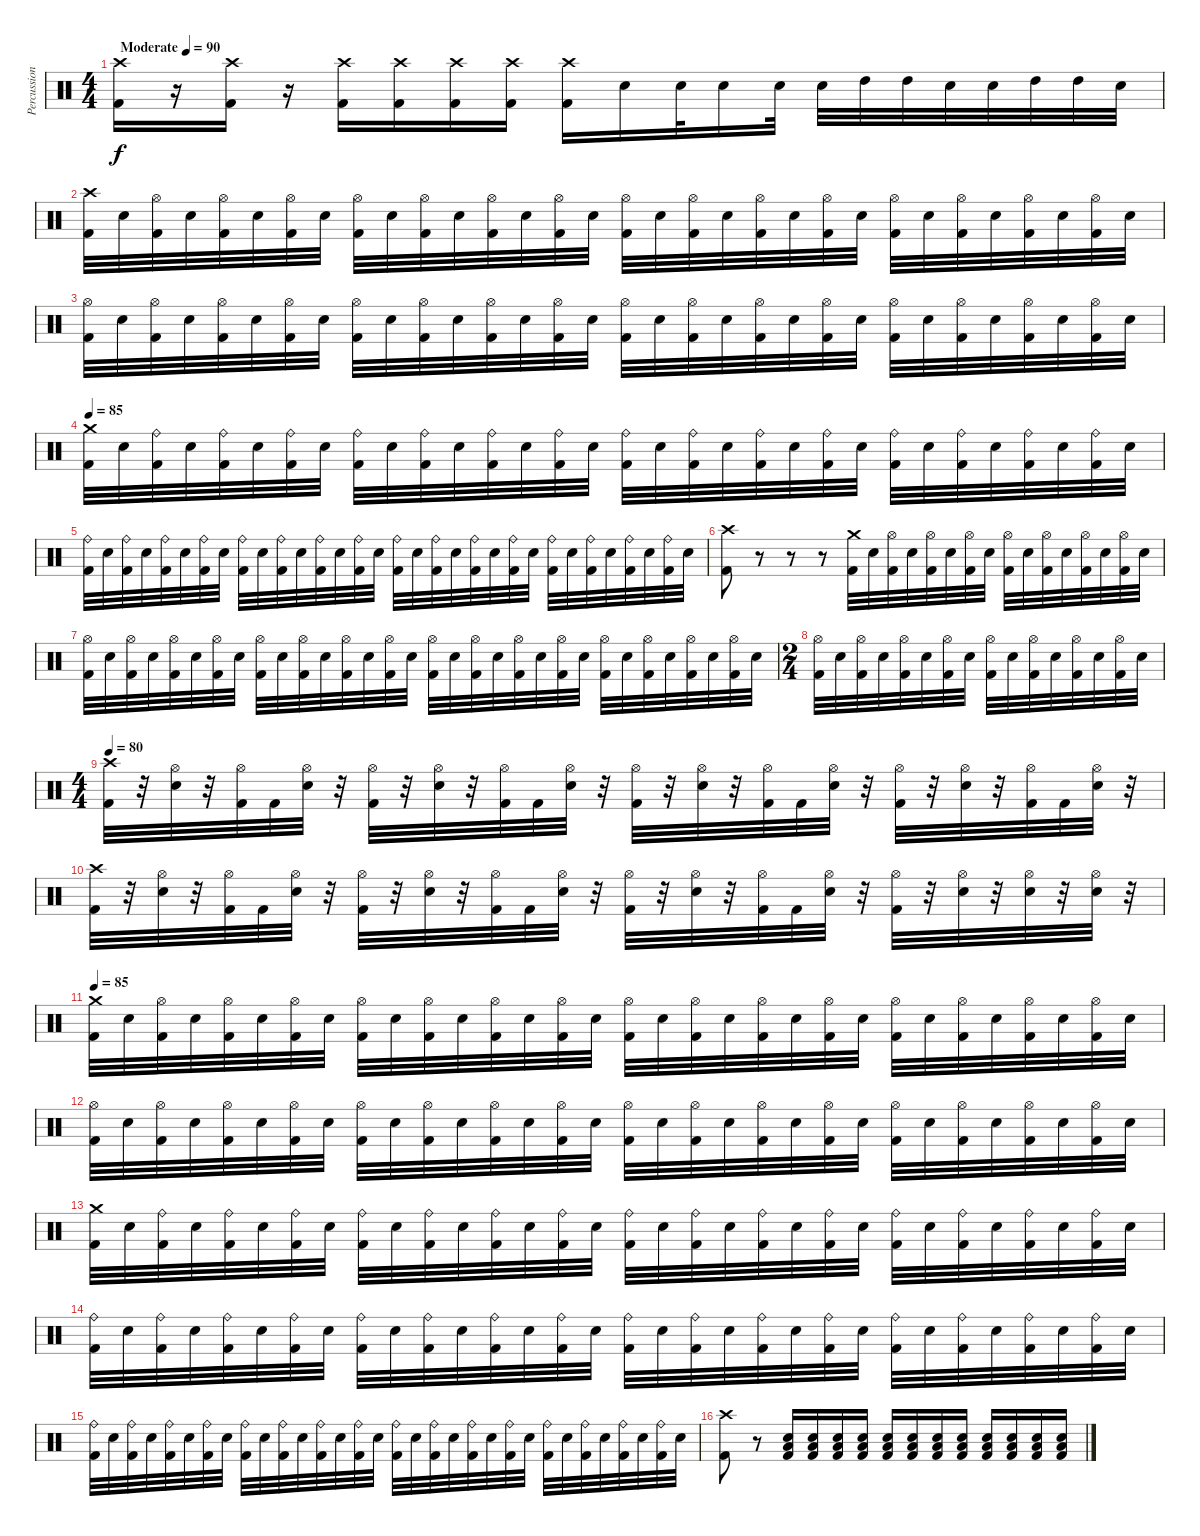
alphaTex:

\track ("Percussion" "Percussion") {instrument percussion}
\staff {score}
\articulation defaults
\ts (4 4)
\tempo (90 "Moderate")
\clef neutral
\ks c
("Crash high (hit)" "Kick (hit) 2").16{dy f} r.16 ("Crash high (hit)" "Kick (hit) 2").16 r.16 ("Crash high (hit)" "Kick (hit) 2").16 ("Crash high (hit)" "Kick (hit) 2").16 ("Crash high (hit)" "Kick (hit) 2").16 ("Crash high (hit)" "Kick (hit) 2").16 ("Crash high (hit)" "Kick (hit) 2").16 "Electric Snare (hit)".16 "Electric Snare (hit)".32 "Electric Snare (hit)".16 "Electric Snare (hit)".32 "Electric Snare (hit)".32 "High Tom (hit)".32 "High Tom (hit)".32 "Electric Snare (hit)".32 "Electric Snare (hit)".32 "High Tom (hit)".32 "High Tom (hit)".32 "Electric Snare (hit)".32 |
("Crash high (hit)" "Kick (hit) 2").32 "Electric Snare (hit)".32 ("Hi-Hat (open)" "Kick (hit) 2").32 "Electric Snare (hit)".32 ("Hi-Hat (open)" "Kick (hit) 2").32 "Electric Snare (hit)".32 ("Hi-Hat (open)" "Kick (hit) 2").32 "Electric Snare (hit)".32 ("Hi-Hat (open)" "Kick (hit) 2").32 "Electric Snare (hit)".32 ("Hi-Hat (open)" "Kick (hit) 2").32 "Electric Snare (hit)".32 ("Hi-Hat (open)" "Kick (hit) 2").32 "Electric Snare (hit)".32 ("Hi-Hat (open)" "Kick (hit) 2").32 "Electric Snare (hit)".32 ("Hi-Hat (open)" "Kick (hit) 2").32 "Electric Snare (hit)".32 ("Hi-Hat (open)" "Kick (hit) 2").32 "Electric Snare (hit)".32 ("Hi-Hat (open)" "Kick (hit) 2").32 "Electric Snare (hit)".32 ("Hi-Hat (open)" "Kick (hit) 2").32 "Electric Snare (hit)".32 ("Hi-Hat (open)" "Kick (hit) 2").32 "Electric Snare (hit)".32 ("Hi-Hat (open)" "Kick (hit) 2").32 "Electric Snare (hit)".32 ("Hi-Hat (open)" "Kick (hit) 2").32 "Electric Snare (hit)".32 ("Hi-Hat (open)" "Kick (hit) 2").32 "Electric Snare (hit)".32 |
("Hi-Hat (open)" "Kick (hit) 2").32 "Electric Snare (hit)".32 ("Hi-Hat (open)" "Kick (hit) 2").32 "Electric Snare (hit)".32 ("Hi-Hat (open)" "Kick (hit) 2").32 "Electric Snare (hit)".32 ("Hi-Hat (open)" "Kick (hit) 2").32 "Electric Snare (hit)".32 ("Hi-Hat (open)" "Kick (hit) 2").32 "Electric Snare (hit)".32 ("Hi-Hat (open)" "Kick (hit) 2").32 "Electric Snare (hit)".32 ("Hi-Hat (open)" "Kick (hit) 2").32 "Electric Snare (hit)".32 ("Hi-Hat (open)" "Kick (hit) 2").32 "Electric Snare (hit)".32 ("Hi-Hat (open)" "Kick (hit) 2").32 "Electric Snare (hit)".32 ("Hi-Hat (open)" "Kick (hit) 2").32 "Electric Snare (hit)".32 ("Hi-Hat (open)" "Kick (hit) 2").32 "Electric Snare (hit)".32 ("Hi-Hat (open)" "Kick (hit) 2").32 "Electric Snare (hit)".32 ("Hi-Hat (open)" "Kick (hit) 2").32 "Electric Snare (hit)".32 ("Hi-Hat (open)" "Kick (hit) 2").32 "Electric Snare (hit)".32 ("Hi-Hat (open)" "Kick (hit) 2").32 "Electric Snare (hit)".32 ("Hi-Hat (open)" "Kick (hit) 2").32 "Electric Snare (hit)".32 |
\tempo 85
("Crash medium (hit)" "Kick (hit) 2").32 "Electric Snare (hit)".32 ("Ride (bell)" "Kick (hit) 2").32 "Electric Snare (hit)".32 ("Ride (bell)" "Kick (hit) 2").32 "Electric Snare (hit)".32 ("Ride (bell)" "Kick (hit) 2").32 "Electric Snare (hit)".32 ("Ride (bell)" "Kick (hit) 2").32 "Electric Snare (hit)".32 ("Ride (bell)" "Kick (hit) 2").32 "Electric Snare (hit)".32 ("Ride (bell)" "Kick (hit) 2").32 "Electric Snare (hit)".32 ("Ride (bell)" "Kick (hit) 2").32 "Electric Snare (hit)".32 ("Ride (bell)" "Kick (hit) 2").32 "Electric Snare (hit)".32 ("Ride (bell)" "Kick (hit) 2").32 "Electric Snare (hit)".32 ("Ride (bell)" "Kick (hit) 2").32 "Electric Snare (hit)".32 ("Ride (bell)" "Kick (hit) 2").32 "Electric Snare (hit)".32 ("Ride (bell)" "Kick (hit) 2").32 "Electric Snare (hit)".32 ("Ride (bell)" "Kick (hit) 2").32 "Electric Snare (hit)".32 ("Ride (bell)" "Kick (hit) 2").32 "Electric Snare (hit)".32 ("Ride (bell)" "Kick (hit) 2").32 "Electric Snare (hit)".32 |
("Ride (bell)" "Kick (hit) 2").32 "Electric Snare (hit)".32 ("Ride (bell)" "Kick (hit) 2").32 "Electric Snare (hit)".32 ("Ride (bell)" "Kick (hit) 2").32 "Electric Snare (hit)".32 ("Ride (bell)" "Kick (hit) 2").32 "Electric Snare (hit)".32 ("Ride (bell)" "Kick (hit) 2").32 "Electric Snare (hit)".32 ("Ride (bell)" "Kick (hit) 2").32 "Electric Snare (hit)".32 ("Ride (bell)" "Kick (hit) 2").32 "Electric Snare (hit)".32 ("Ride (bell)" "Kick (hit) 2").32 "Electric Snare (hit)".32 ("Ride (bell)" "Kick (hit) 2").32 "Electric Snare (hit)".32 ("Ride (bell)" "Kick (hit) 2").32 "Electric Snare (hit)".32 ("Ride (bell)" "Kick (hit) 2").32 "Electric Snare (hit)".32 ("Ride (bell)" "Kick (hit) 2").32 "Electric Snare (hit)".32 ("Ride (bell)" "Kick (hit) 2").32 "Electric Snare (hit)".32 ("Ride (bell)" "Kick (hit) 2").32 "Electric Snare (hit)".32 ("Ride (bell)" "Kick (hit) 2").32 "Electric Snare (hit)".32 ("Ride (bell)" "Kick (hit) 2").32 "Electric Snare (hit)".32 |
("Crash high (hit)" "Kick (hit) 2").8 r.8 r.8 r.8 ("Crash medium (hit)" "Kick (hit) 2").32 "Electric Snare (hit)".32 ("Hi-Hat (open)" "Kick (hit) 2").32 "Electric Snare (hit)".32 ("Hi-Hat (open)" "Kick (hit) 2").32 "Electric Snare (hit)".32 ("Hi-Hat (open)" "Kick (hit) 2").32 "Electric Snare (hit)".32 ("Hi-Hat (open)" "Kick (hit) 2").32 "Electric Snare (hit)".32 ("Hi-Hat (open)" "Kick (hit) 2").32 "Electric Snare (hit)".32 ("Hi-Hat (open)" "Kick (hit) 2").32 "Electric Snare (hit)".32 ("Hi-Hat (open)" "Kick (hit) 2").32 "Electric Snare (hit)".32 |
("Hi-Hat (open)" "Kick (hit) 2").32 "Electric Snare (hit)".32 ("Hi-Hat (open)" "Kick (hit) 2").32 "Electric Snare (hit)".32 ("Hi-Hat (open)" "Kick (hit) 2").32 "Electric Snare (hit)".32 ("Hi-Hat (open)" "Kick (hit) 2").32 "Electric Snare (hit)".32 ("Hi-Hat (open)" "Kick (hit) 2").32 "Electric Snare (hit)".32 ("Hi-Hat (open)" "Kick (hit) 2").32 "Electric Snare (hit)".32 ("Hi-Hat (open)" "Kick (hit) 2").32 "Electric Snare (hit)".32 ("Hi-Hat (open)" "Kick (hit) 2").32 "Electric Snare (hit)".32 ("Hi-Hat (open)" "Kick (hit) 2").32 "Electric Snare (hit)".32 ("Hi-Hat (open)" "Kick (hit) 2").32 "Electric Snare (hit)".32 ("Hi-Hat (open)" "Kick (hit) 2").32 "Electric Snare (hit)".32 ("Hi-Hat (open)" "Kick (hit) 2").32 "Electric Snare (hit)".32 ("Hi-Hat (open)" "Kick (hit) 2").32 "Electric Snare (hit)".32 ("Hi-Hat (open)" "Kick (hit) 2").32 "Electric Snare (hit)".32 ("Hi-Hat (open)" "Kick (hit) 2").32 "Electric Snare (hit)".32 ("Hi-Hat (open)" "Kick (hit) 2").32 "Electric Snare (hit)".32 |
\ts (2 4)
("Hi-Hat (open)" "Kick (hit) 2").32 "Electric Snare (hit)".32 ("Hi-Hat (open)" "Kick (hit) 2").32 "Electric Snare (hit)".32 ("Hi-Hat (open)" "Kick (hit) 2").32 "Electric Snare (hit)".32 ("Hi-Hat (open)" "Kick (hit) 2").32 "Electric Snare (hit)".32 ("Hi-Hat (open)" "Kick (hit) 2").32 "Electric Snare (hit)".32 ("Hi-Hat (open)" "Kick (hit) 2").32 "Electric Snare (hit)".32 ("Hi-Hat (open)" "Kick (hit) 2").32 "Electric Snare (hit)".32 ("Hi-Hat (open)" "Kick (hit) 2").32 "Electric Snare (hit)".32 |
\ts (4 4)
\tempo 80
("Crash high (hit)" "Kick (hit) 2").32 r.32 ("Hi-Hat (open)" "Electric Snare (hit)").32 r.32 ("Hi-Hat (open)" "Kick (hit) 2").32 "Kick (hit) 2".32 ("Hi-Hat (open)" "Electric Snare (hit)").32 r.32 ("Hi-Hat (open)" "Kick (hit) 2").32 r.32 ("Hi-Hat (open)" "Electric Snare (hit)").32 r.32 ("Hi-Hat (open)" "Kick (hit) 2").32 "Kick (hit) 2".32 ("Hi-Hat (open)" "Electric Snare (hit)").32 r.32 ("Hi-Hat (open)" "Kick (hit) 2").32 r.32 ("Hi-Hat (open)" "Electric Snare (hit)").32 r.32 ("Hi-Hat (open)" "Kick (hit) 2").32 "Kick (hit) 2".32 ("Hi-Hat (open)" "Electric Snare (hit)").32 r.32 ("Hi-Hat (open)" "Kick (hit) 2").32 r.32 ("Hi-Hat (open)" "Electric Snare (hit)").32 r.32 ("Hi-Hat (open)" "Kick (hit) 2").32 "Kick (hit) 2".32 ("Hi-Hat (open)" "Electric Snare (hit)").32 r.32 |
("Crash high (hit)" "Kick (hit) 2").32 r.32 ("Hi-Hat (open)" "Electric Snare (hit)").32 r.32 ("Hi-Hat (open)" "Kick (hit) 2").32 "Kick (hit) 2".32 ("Hi-Hat (open)" "Electric Snare (hit)").32 r.32 ("Hi-Hat (open)" "Kick (hit) 2").32 r.32 ("Hi-Hat (open)" "Electric Snare (hit)").32 r.32 ("Hi-Hat (open)" "Kick (hit) 2").32 "Kick (hit) 2".32 ("Hi-Hat (open)" "Electric Snare (hit)").32 r.32 ("Hi-Hat (open)" "Kick (hit) 2").32 r.32 ("Hi-Hat (open)" "Electric Snare (hit)").32 r.32 ("Hi-Hat (open)" "Kick (hit) 2").32 "Kick (hit) 2".32 ("Hi-Hat (open)" "Electric Snare (hit)").32 r.32 ("Hi-Hat (open)" "Kick (hit) 2").32 r.32 ("Hi-Hat (open)" "Electric Snare (hit)").32 r.32 ("Hi-Hat (open)" "Electric Snare (hit)").32 r.32 ("Hi-Hat (open)" "Electric Snare (hit)").32 r.32 |
\tempo 85
("Crash medium (hit)" "Kick (hit) 2").32 "Electric Snare (hit)".32 ("Hi-Hat (open)" "Kick (hit) 2").32 "Electric Snare (hit)".32 ("Hi-Hat (open)" "Kick (hit) 2").32 "Electric Snare (hit)".32 ("Hi-Hat (open)" "Kick (hit) 2").32 "Electric Snare (hit)".32 ("Hi-Hat (open)" "Kick (hit) 2").32 "Electric Snare (hit)".32 ("Hi-Hat (open)" "Kick (hit) 2").32 "Electric Snare (hit)".32 ("Hi-Hat (open)" "Kick (hit) 2").32 "Electric Snare (hit)".32 ("Hi-Hat (open)" "Kick (hit) 2").32 "Electric Snare (hit)".32 ("Hi-Hat (open)" "Kick (hit) 2").32 "Electric Snare (hit)".32 ("Hi-Hat (open)" "Kick (hit) 2").32 "Electric Snare (hit)".32 ("Hi-Hat (open)" "Kick (hit) 2").32 "Electric Snare (hit)".32 ("Hi-Hat (open)" "Kick (hit) 2").32 "Electric Snare (hit)".32 ("Hi-Hat (open)" "Kick (hit) 2").32 "Electric Snare (hit)".32 ("Hi-Hat (open)" "Kick (hit) 2").32 "Electric Snare (hit)".32 ("Hi-Hat (open)" "Kick (hit) 2").32 "Electric Snare (hit)".32 ("Hi-Hat (open)" "Kick (hit) 2").32 "Electric Snare (hit)".32 |
("Hi-Hat (open)" "Kick (hit) 2").32 "Electric Snare (hit)".32 ("Hi-Hat (open)" "Kick (hit) 2").32 "Electric Snare (hit)".32 ("Hi-Hat (open)" "Kick (hit) 2").32 "Electric Snare (hit)".32 ("Hi-Hat (open)" "Kick (hit) 2").32 "Electric Snare (hit)".32 ("Hi-Hat (open)" "Kick (hit) 2").32 "Electric Snare (hit)".32 ("Hi-Hat (open)" "Kick (hit) 2").32 "Electric Snare (hit)".32 ("Hi-Hat (open)" "Kick (hit) 2").32 "Electric Snare (hit)".32 ("Hi-Hat (open)" "Kick (hit) 2").32 "Electric Snare (hit)".32 ("Hi-Hat (open)" "Kick (hit) 2").32 "Electric Snare (hit)".32 ("Hi-Hat (open)" "Kick (hit) 2").32 "Electric Snare (hit)".32 ("Hi-Hat (open)" "Kick (hit) 2").32 "Electric Snare (hit)".32 ("Hi-Hat (open)" "Kick (hit) 2").32 "Electric Snare (hit)".32 ("Hi-Hat (open)" "Kick (hit) 2").32 "Electric Snare (hit)".32 ("Hi-Hat (open)" "Kick (hit) 2").32 "Electric Snare (hit)".32 ("Hi-Hat (open)" "Kick (hit) 2").32 "Electric Snare (hit)".32 ("Hi-Hat (open)" "Kick (hit) 2").32 "Electric Snare (hit)".32 |
("Crash medium (hit)" "Kick (hit) 2").32 "Electric Snare (hit)".32 ("Ride (bell)" "Kick (hit) 2").32 "Electric Snare (hit)".32 ("Ride (bell)" "Kick (hit) 2").32 "Electric Snare (hit)".32 ("Ride (bell)" "Kick (hit) 2").32 "Electric Snare (hit)".32 ("Ride (bell)" "Kick (hit) 2").32 "Electric Snare (hit)".32 ("Ride (bell)" "Kick (hit) 2").32 "Electric Snare (hit)".32 ("Ride (bell)" "Kick (hit) 2").32 "Electric Snare (hit)".32 ("Ride (bell)" "Kick (hit) 2").32 "Electric Snare (hit)".32 ("Ride (bell)" "Kick (hit) 2").32 "Electric Snare (hit)".32 ("Ride (bell)" "Kick (hit) 2").32 "Electric Snare (hit)".32 ("Ride (bell)" "Kick (hit) 2").32 "Electric Snare (hit)".32 ("Ride (bell)" "Kick (hit) 2").32 "Electric Snare (hit)".32 ("Ride (bell)" "Kick (hit) 2").32 "Electric Snare (hit)".32 ("Ride (bell)" "Kick (hit) 2").32 "Electric Snare (hit)".32 ("Ride (bell)" "Kick (hit) 2").32 "Electric Snare (hit)".32 ("Ride (bell)" "Kick (hit) 2").32 "Electric Snare (hit)".32 |
("Ride (bell)" "Kick (hit) 2").32 "Electric Snare (hit)".32 ("Ride (bell)" "Kick (hit) 2").32 "Electric Snare (hit)".32 ("Ride (bell)" "Kick (hit) 2").32 "Electric Snare (hit)".32 ("Ride (bell)" "Kick (hit) 2").32 "Electric Snare (hit)".32 ("Ride (bell)" "Kick (hit) 2").32 "Electric Snare (hit)".32 ("Ride (bell)" "Kick (hit) 2").32 "Electric Snare (hit)".32 ("Ride (bell)" "Kick (hit) 2").32 "Electric Snare (hit)".32 ("Ride (bell)" "Kick (hit) 2").32 "Electric Snare (hit)".32 ("Ride (bell)" "Kick (hit) 2").32 "Electric Snare (hit)".32 ("Ride (bell)" "Kick (hit) 2").32 "Electric Snare (hit)".32 ("Ride (bell)" "Kick (hit) 2").32 "Electric Snare (hit)".32 ("Ride (bell)" "Kick (hit) 2").32 "Electric Snare (hit)".32 ("Ride (bell)" "Kick (hit) 2").32 "Electric Snare (hit)".32 ("Ride (bell)" "Kick (hit) 2").32 "Electric Snare (hit)".32 ("Ride (bell)" "Kick (hit) 2").32 "Electric Snare (hit)".32 ("Ride (bell)" "Kick (hit) 2").32 "Electric Snare (hit)".32 |
("Ride (bell)" "Kick (hit) 2").32 "Electric Snare (hit)".32 ("Ride (bell)" "Kick (hit) 2").32 "Electric Snare (hit)".32 ("Ride (bell)" "Kick (hit) 2").32 "Electric Snare (hit)".32 ("Ride (bell)" "Kick (hit) 2").32 "Electric Snare (hit)".32 ("Ride (bell)" "Kick (hit) 2").32 "Electric Snare (hit)".32 ("Ride (bell)" "Kick (hit) 2").32 "Electric Snare (hit)".32 ("Ride (bell)" "Kick (hit) 2").32 "Electric Snare (hit)".32 ("Ride (bell)" "Kick (hit) 2").32 "Electric Snare (hit)".32 ("Ride (bell)" "Kick (hit) 2").32 "Electric Snare (hit)".32 ("Ride (bell)" "Kick (hit) 2").32 "Electric Snare (hit)".32 ("Ride (bell)" "Kick (hit) 2").32 "Electric Snare (hit)".32 ("Ride (bell)" "Kick (hit) 2").32 "Electric Snare (hit)".32 ("Ride (bell)" "Kick (hit) 2").32 "Electric Snare (hit)".32 ("Ride (bell)" "Kick (hit) 2").32 "Electric Snare (hit)".32 ("Ride (bell)" "Kick (hit) 2").32 "Electric Snare (hit)".32 ("Ride (bell)" "Kick (hit) 2").32 "Electric Snare (hit)".32 |
("Crash high (hit)" "Kick (hit) 2").8 r.8 ("Low Floor Tom (hit)" "Electric Snare (hit)" "Kick (hit) 2").16 ("Low Floor Tom (hit)" "Electric Snare (hit)" "Kick (hit) 2").16 ("Low Floor Tom (hit)" "Electric Snare (hit)" "Kick (hit) 2").16 ("Low Floor Tom (hit)" "Electric Snare (hit)" "Kick (hit) 2").16 ("Low Floor Tom (hit)" "Electric Snare (hit)" "Kick (hit) 2").16 ("Low Floor Tom (hit)" "Electric Snare (hit)" "Kick (hit) 2").16 ("Low Floor Tom (hit)" "Electric Snare (hit)" "Kick (hit) 2").16 ("Low Floor Tom (hit)" "Electric Snare (hit)" "Kick (hit) 2").16 ("Low Floor Tom (hit)" "Electric Snare (hit)" "Kick (hit) 2").16 ("Low Floor Tom (hit)" "Electric Snare (hit)" "Kick (hit) 2").16 ("Low Floor Tom (hit)" "Electric Snare (hit)" "Kick (hit) 2").16 ("Low Floor Tom (hit)" "Electric Snare (hit)" "Kick (hit) 2").16
